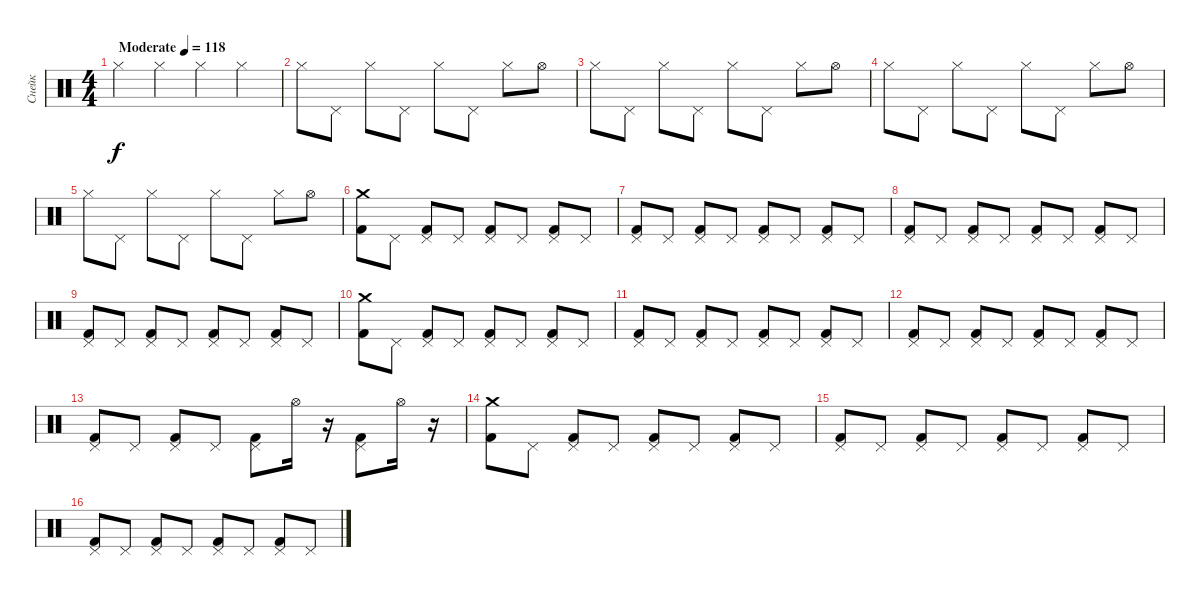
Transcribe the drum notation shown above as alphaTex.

\track ("Снейк" "Снейк") {instrument percussion}
\staff {score}
\articulation defaults
\ts (4 4)
\tempo (118 "Moderate")
\clef neutral
\ks c "Hi-Hat (closed)".4{dy f} "Hi-Hat (closed)".4 "Hi-Hat (closed)".4 "Hi-Hat (closed)".4
|
"Hi-Hat (closed)".8 "Pedal Hi-Hat (hit)".8 "Hi-Hat (closed)".8 "Pedal Hi-Hat (hit)".8 "Hi-Hat (closed)".8 "Pedal Hi-Hat (hit)".8 "Hi-Hat (closed)".8 "Hi-Hat (open)".8 |
"Hi-Hat (closed)".8 "Pedal Hi-Hat (hit)".8 "Hi-Hat (closed)".8 "Pedal Hi-Hat (hit)".8 "Hi-Hat (closed)".8 "Pedal Hi-Hat (hit)".8 "Hi-Hat (closed)".8 "Hi-Hat (open)".8 |
"Hi-Hat (closed)".8 "Pedal Hi-Hat (hit)".8 "Hi-Hat (closed)".8 "Pedal Hi-Hat (hit)".8 "Hi-Hat (closed)".8 "Pedal Hi-Hat (hit)".8 "Hi-Hat (closed)".8 "Hi-Hat (open)".8 |
"Hi-Hat (closed)".8 "Pedal Hi-Hat (hit)".8 "Hi-Hat (closed)".8 "Pedal Hi-Hat (hit)".8 "Hi-Hat (closed)".8 "Pedal Hi-Hat (hit)".8 "Hi-Hat (closed)".8 "Hi-Hat (open)".8 |
("Crash medium (hit)" "Kick (hit) 2").8 "Pedal Hi-Hat (hit)".8 ("Pedal Hi-Hat (hit)" "Kick (hit) 2").8 "Pedal Hi-Hat (hit)".8 ("Pedal Hi-Hat (hit)" "Kick (hit) 2").8 "Pedal Hi-Hat (hit)".8 ("Pedal Hi-Hat (hit)" "Kick (hit) 2").8 "Pedal Hi-Hat (hit)".8 |
("Pedal Hi-Hat (hit)" "Kick (hit) 2").8 "Pedal Hi-Hat (hit)".8 ("Pedal Hi-Hat (hit)" "Kick (hit) 2").8 "Pedal Hi-Hat (hit)".8 ("Pedal Hi-Hat (hit)" "Kick (hit) 2").8 "Pedal Hi-Hat (hit)".8 ("Pedal Hi-Hat (hit)" "Kick (hit) 2").8 "Pedal Hi-Hat (hit)".8 |
("Pedal Hi-Hat (hit)" "Kick (hit) 2").8 "Pedal Hi-Hat (hit)".8 ("Pedal Hi-Hat (hit)" "Kick (hit) 2").8 "Pedal Hi-Hat (hit)".8 ("Pedal Hi-Hat (hit)" "Kick (hit) 2").8 "Pedal Hi-Hat (hit)".8 ("Pedal Hi-Hat (hit)" "Kick (hit) 2").8 "Pedal Hi-Hat (hit)".8 |
("Pedal Hi-Hat (hit)" "Kick (hit) 2").8 "Pedal Hi-Hat (hit)".8 ("Pedal Hi-Hat (hit)" "Kick (hit) 2").8 "Pedal Hi-Hat (hit)".8 ("Pedal Hi-Hat (hit)" "Kick (hit) 2").8 "Pedal Hi-Hat (hit)".8 ("Pedal Hi-Hat (hit)" "Kick (hit) 2").8 "Pedal Hi-Hat (hit)".8 |
("Crash medium (hit)" "Kick (hit) 2").8 "Pedal Hi-Hat (hit)".8 ("Pedal Hi-Hat (hit)" "Kick (hit) 2").8 "Pedal Hi-Hat (hit)".8 ("Pedal Hi-Hat (hit)" "Kick (hit) 2").8 "Pedal Hi-Hat (hit)".8 ("Pedal Hi-Hat (hit)" "Kick (hit) 2").8 "Pedal Hi-Hat (hit)".8 |
("Pedal Hi-Hat (hit)" "Kick (hit) 2").8 "Pedal Hi-Hat (hit)".8 ("Pedal Hi-Hat (hit)" "Kick (hit) 2").8 "Pedal Hi-Hat (hit)".8 ("Pedal Hi-Hat (hit)" "Kick (hit) 2").8 "Pedal Hi-Hat (hit)".8 ("Pedal Hi-Hat (hit)" "Kick (hit) 2").8 "Pedal Hi-Hat (hit)".8 |
("Pedal Hi-Hat (hit)" "Kick (hit) 2").8 "Pedal Hi-Hat (hit)".8 ("Pedal Hi-Hat (hit)" "Kick (hit) 2").8 "Pedal Hi-Hat (hit)".8 ("Pedal Hi-Hat (hit)" "Kick (hit) 2").8 "Pedal Hi-Hat (hit)".8 ("Pedal Hi-Hat (hit)" "Kick (hit) 2").8 "Pedal Hi-Hat (hit)".8 |
("Pedal Hi-Hat (hit)" "Kick (hit) 2").8 "Pedal Hi-Hat (hit)".8 ("Pedal Hi-Hat (hit)" "Kick (hit) 2").8 "Pedal Hi-Hat (hit)".8 ("Pedal Hi-Hat (hit)" "Kick (hit) 2").8 "Hi-Hat (open)".16 r.16 ("Pedal Hi-Hat (hit)" "Kick (hit) 2").8 "Hi-Hat (open)".16 r.16 |
("Crash medium (hit)" "Kick (hit) 2").8 "Pedal Hi-Hat (hit)".8 ("Pedal Hi-Hat (hit)" "Kick (hit) 2").8 "Pedal Hi-Hat (hit)".8 ("Pedal Hi-Hat (hit)" "Kick (hit) 2").8 "Pedal Hi-Hat (hit)".8 ("Pedal Hi-Hat (hit)" "Kick (hit) 2").8 "Pedal Hi-Hat (hit)".8 |
("Pedal Hi-Hat (hit)" "Kick (hit) 2").8 "Pedal Hi-Hat (hit)".8 ("Pedal Hi-Hat (hit)" "Kick (hit) 2").8 "Pedal Hi-Hat (hit)".8 ("Pedal Hi-Hat (hit)" "Kick (hit) 2").8 "Pedal Hi-Hat (hit)".8 ("Pedal Hi-Hat (hit)" "Kick (hit) 2").8 "Pedal Hi-Hat (hit)".8 |
("Pedal Hi-Hat (hit)" "Kick (hit) 2").8 "Pedal Hi-Hat (hit)".8 ("Pedal Hi-Hat (hit)" "Kick (hit) 2").8 "Pedal Hi-Hat (hit)".8 ("Pedal Hi-Hat (hit)" "Kick (hit) 2").8 "Pedal Hi-Hat (hit)".8 ("Pedal Hi-Hat (hit)" "Kick (hit) 2").8 "Pedal Hi-Hat (hit)".8
